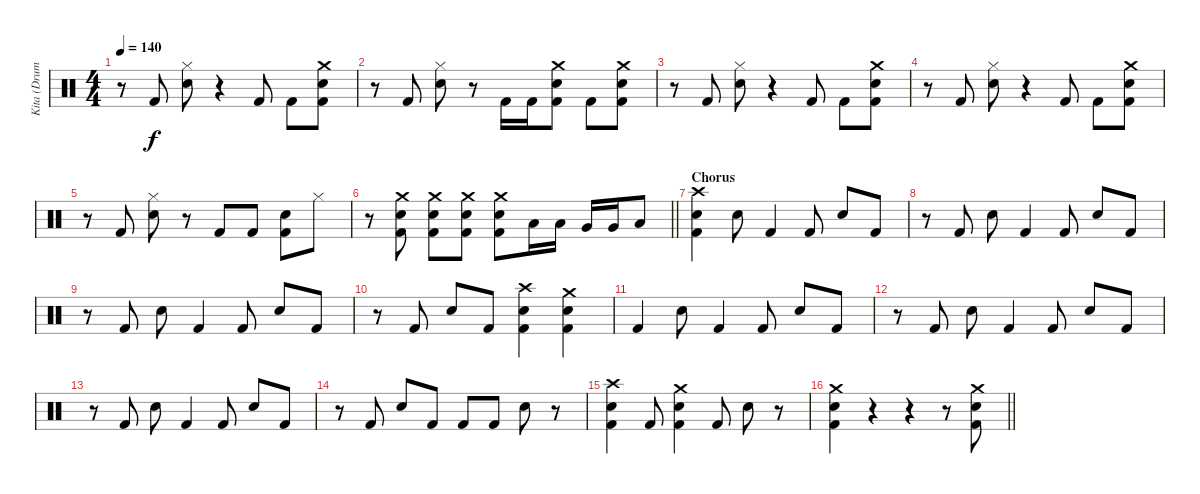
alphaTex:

\track ("Kita (Drums)" "Kita (Drum") {instrument percussion}
\staff {score}
\articulation defaults
\ts (4 4)
\tempo 140
\clef neutral
\ks c
r.8{dy f} "Kick (hit) 2".8 ("Hi-Hat (closed)" "Snare (hit) 2").8 r.4 "Kick (hit) 2".8 "Kick (hit) 2".8 ("Crash medium (hit)" "Snare (hit) 2" "Kick (hit) 2").8 |
r.8 "Kick (hit) 2".8 ("Hi-Hat (closed)" "Snare (hit) 2").8 r.8 "Kick (hit) 2".16 "Kick (hit) 2".16 ("Crash medium (hit)" "Snare (hit) 2" "Kick (hit) 2").8 "Kick (hit) 2".8 ("Crash medium (hit)" "Snare (hit) 2" "Kick (hit) 2").8 |
r.8 "Kick (hit) 2".8 ("Hi-Hat (closed)" "Snare (hit) 2").8 r.4 "Kick (hit) 2".8 "Kick (hit) 2".8 ("Crash medium (hit)" "Snare (hit) 2" "Kick (hit) 2").8 |
r.8 "Kick (hit) 2".8 ("Hi-Hat (closed)" "Snare (hit) 2").8 r.4 "Kick (hit) 2".8 "Kick (hit) 2".8 ("Crash medium (hit)" "Snare (hit) 2" "Kick (hit) 2").8 |
r.8 "Kick (hit) 2".8 ("Hi-Hat (closed)" "Snare (hit) 2").8 r.8 "Kick (hit) 2".8 "Kick (hit) 2".8 ("Snare (hit) 2" "Kick (hit) 2").8 "Hi-Hat (closed)".8 |
\barLineRight lightlight
r.8 ("Crash medium (hit)" "Snare (hit) 2" "Kick (hit) 2").8 ("Crash medium (hit)" "Snare (hit) 2" "Kick (hit) 2").8 ("Crash medium (hit)" "Snare (hit) 2" "Kick (hit) 2").8 ("Crash medium (hit)" "Snare (hit) 2" "Kick (hit) 2").8 "Low Tom (hit)".16 "Low Tom (hit)".16 "Very Low Tom (hit)".16 "Very Low Tom (hit)".16 "Low Floor Tom (hit)".8 |
\section ("" "Chorus")
("Crash high (hit)" "Snare (hit) 2" "Kick (hit) 2").4 "Snare (hit) 2".8 "Kick (hit) 2".4 "Kick (hit) 2".8 "Snare (hit) 2".8 "Kick (hit) 2".8 |
r.8 "Kick (hit) 2".8 "Snare (hit) 2".8 "Kick (hit) 2".4 "Kick (hit) 2".8 "Snare (hit) 2".8 "Kick (hit) 2".8 |
r.8 "Kick (hit) 2".8 "Snare (hit) 2".8 "Kick (hit) 2".4 "Kick (hit) 2".8 "Snare (hit) 2".8 "Kick (hit) 2".8 |
r.8 "Kick (hit) 2".8 "Snare (hit) 2".8 "Kick (hit) 2".8 ("Crash high (hit)" "Snare (hit) 2" "Kick (hit) 2").4 ("Crash medium (hit)" "Snare (hit) 2" "Kick (hit) 2").4 |
"Kick (hit) 2".4 "Snare (hit) 2".8 "Kick (hit) 2".4 "Kick (hit) 2".8 "Snare (hit) 2".8 "Kick (hit) 2".8 |
r.8 "Kick (hit) 2".8 "Snare (hit) 2".8 "Kick (hit) 2".4 "Kick (hit) 2".8 "Snare (hit) 2".8 "Kick (hit) 2".8 |
r.8 "Kick (hit) 2".8 "Snare (hit) 2".8 "Kick (hit) 2".4 "Kick (hit) 2".8 "Snare (hit) 2".8 "Kick (hit) 2".8 |
r.8 "Kick (hit) 2".8 "Snare (hit) 2".8 "Kick (hit) 2".8 "Kick (hit) 2".8 "Kick (hit) 2".8 "Snare (hit) 2".8 r.8 |
("Crash high (hit)" "Snare (hit) 2" "Kick (hit) 2").4 "Kick (hit) 2".8 ("Crash medium (hit)" "Snare (hit) 2" "Kick (hit) 2").4 "Kick (hit) 2".8 "Snare (hit) 2".8 r.8 |
\barLineRight lightlight
("Crash medium (hit)" "Snare (hit) 2" "Kick (hit) 2").4 r.4 r.4 r.8 ("Crash medium (hit)" "Snare (hit) 2" "Kick (hit) 2").8
